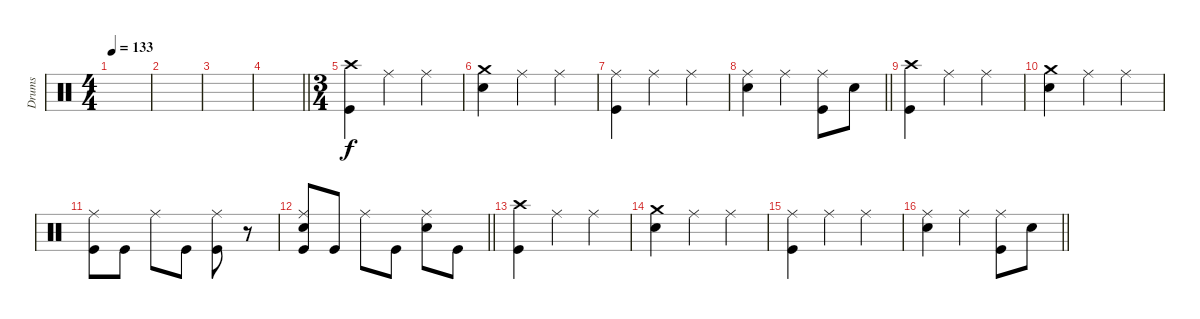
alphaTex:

\track ("Drums" "Drums") {instrument percussion}
\staff
\articulation defaults
\ts (4 4)
\tempo 133
\clef neutral
\ks c
|
|
|
\barLineRight lightlight
|
\ts (3 4)
\section ("" "")
("Crash high (hit)" "Kick (hit)").4 "Ride (middle)".4 "Ride (middle)".4 |
("Crash medium (hit)" "Electric Snare (hit)").4 "Ride (middle)".4 "Ride (middle)".4 |
("Ride (middle)" "Kick (hit)").4 "Ride (middle)".4 "Ride (middle)".4 |
\barLineRight lightlight
("Ride (middle)" "Electric Snare (hit)").4 "Ride (middle)".4 ("Ride (middle)" "Kick (hit)").8 "Electric Snare (hit)".8 |
("Crash high (hit)" "Kick (hit)").4 "Ride (middle)".4 "Ride (middle)".4 |
("Crash medium (hit)" "Electric Snare (hit)").4 "Ride (middle)".4 "Ride (middle)".4 |
("Ride (middle)" "Kick (hit)").8 "Kick (hit)".8 "Ride (middle)".8 "Kick (hit)".8 ("Ride (middle)" "Kick (hit)").8 r.8 |
\barLineRight lightlight
("Ride (middle)" "Electric Snare (hit)" "Kick (hit)").8 "Kick (hit)".8 "Ride (middle)".8 "Kick (hit)".8 ("Ride (middle)" "Electric Snare (hit)").8 "Kick (hit)".8 |
("Crash high (hit)" "Kick (hit)").4 "Ride (middle)".4 "Ride (middle)".4 |
("Crash medium (hit)" "Electric Snare (hit)").4 "Ride (middle)".4 "Ride (middle)".4 |
("Ride (middle)" "Kick (hit)").4 "Ride (middle)".4 "Ride (middle)".4 |
\barLineRight lightlight
("Ride (middle)" "Electric Snare (hit)").4 "Ride (middle)".4 ("Ride (middle)" "Kick (hit)").8 "Electric Snare (hit)".8
